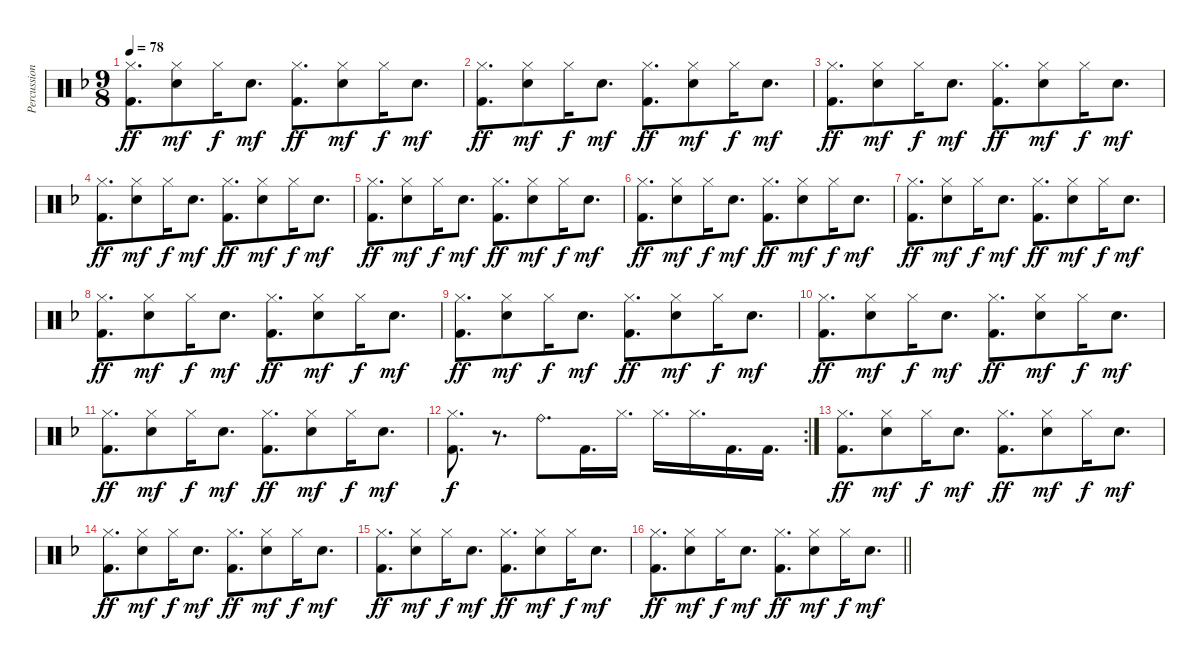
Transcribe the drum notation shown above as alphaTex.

\track ("Percussion" "Percussion") {instrument percussion}
\staff {score}
\articulation defaults
\ts (9 8)
\tempo 78
\clef neutral
\ks f
("Hi-Hat (closed)" "Kick (hit) 2").8{d dy ff} ("Hi-Hat (closed)" "Electric Snare (hit)").8{dy mf} "Hi-Hat (closed)".16{dy f beam merge} "Electric Snare (hit)".8{d dy mf beam split} ("Hi-Hat (closed)" "Kick (hit) 2").8{d dy ff beam merge} ("Hi-Hat (closed)" "Electric Snare (hit)").8{dy mf} "Hi-Hat (closed)".16{dy f} "Electric Snare (hit)".8{d dy mf} |
("Hi-Hat (closed)" "Kick (hit) 2").8{d dy ff} ("Hi-Hat (closed)" "Electric Snare (hit)").8{dy mf} "Hi-Hat (closed)".16{dy f beam merge} "Electric Snare (hit)".8{d dy mf beam split} ("Hi-Hat (closed)" "Kick (hit) 2").8{d dy ff beam merge} ("Hi-Hat (closed)" "Electric Snare (hit)").8{dy mf} "Hi-Hat (closed)".16{dy f} "Electric Snare (hit)".8{d dy mf} |
("Hi-Hat (closed)" "Kick (hit) 2").8{d dy ff} ("Hi-Hat (closed)" "Electric Snare (hit)").8{dy mf} "Hi-Hat (closed)".16{dy f beam merge} "Electric Snare (hit)".8{d dy mf beam split} ("Hi-Hat (closed)" "Kick (hit) 2").8{d dy ff beam merge} ("Hi-Hat (closed)" "Electric Snare (hit)").8{dy mf} "Hi-Hat (closed)".16{dy f} "Electric Snare (hit)".8{d dy mf} |
("Hi-Hat (closed)" "Kick (hit) 2").8{d dy ff} ("Hi-Hat (closed)" "Electric Snare (hit)").8{dy mf} "Hi-Hat (closed)".16{dy f beam merge} "Electric Snare (hit)".8{d dy mf beam split} ("Hi-Hat (closed)" "Kick (hit) 2").8{d dy ff beam merge} ("Hi-Hat (closed)" "Electric Snare (hit)").8{dy mf} "Hi-Hat (closed)".16{dy f} "Electric Snare (hit)".8{d dy mf} |
("Hi-Hat (closed)" "Kick (hit) 2").8{d dy ff} ("Hi-Hat (closed)" "Electric Snare (hit)").8{dy mf} "Hi-Hat (closed)".16{dy f beam merge} "Electric Snare (hit)".8{d dy mf beam split} ("Hi-Hat (closed)" "Kick (hit) 2").8{d dy ff beam merge} ("Hi-Hat (closed)" "Electric Snare (hit)").8{dy mf} "Hi-Hat (closed)".16{dy f} "Electric Snare (hit)".8{d dy mf} |
("Hi-Hat (closed)" "Kick (hit) 2").8{d dy ff} ("Hi-Hat (closed)" "Electric Snare (hit)").8{dy mf} "Hi-Hat (closed)".16{dy f beam merge} "Electric Snare (hit)".8{d dy mf beam split} ("Hi-Hat (closed)" "Kick (hit) 2").8{d dy ff beam merge} ("Hi-Hat (closed)" "Electric Snare (hit)").8{dy mf} "Hi-Hat (closed)".16{dy f} "Electric Snare (hit)".8{d dy mf} |
("Hi-Hat (closed)" "Kick (hit) 2").8{d dy ff} ("Hi-Hat (closed)" "Electric Snare (hit)").8{dy mf} "Hi-Hat (closed)".16{dy f beam merge} "Electric Snare (hit)".8{d dy mf beam split} ("Hi-Hat (closed)" "Kick (hit) 2").8{d dy ff beam merge} ("Hi-Hat (closed)" "Electric Snare (hit)").8{dy mf} "Hi-Hat (closed)".16{dy f} "Electric Snare (hit)".8{d dy mf} |
("Hi-Hat (closed)" "Kick (hit) 2").8{d dy ff} ("Hi-Hat (closed)" "Electric Snare (hit)").8{dy mf} "Hi-Hat (closed)".16{dy f beam merge} "Electric Snare (hit)".8{d dy mf beam split} ("Hi-Hat (closed)" "Kick (hit) 2").8{d dy ff beam merge} ("Hi-Hat (closed)" "Electric Snare (hit)").8{dy mf} "Hi-Hat (closed)".16{dy f} "Electric Snare (hit)".8{d dy mf} |
("Hi-Hat (closed)" "Kick (hit) 2").8{d dy ff} ("Hi-Hat (closed)" "Electric Snare (hit)").8{dy mf} "Hi-Hat (closed)".16{dy f beam merge} "Electric Snare (hit)".8{d dy mf beam split} ("Hi-Hat (closed)" "Kick (hit) 2").8{d dy ff beam merge} ("Hi-Hat (closed)" "Electric Snare (hit)").8{dy mf} "Hi-Hat (closed)".16{dy f} "Electric Snare (hit)".8{d dy mf} |
("Hi-Hat (closed)" "Kick (hit) 2").8{d dy ff} ("Hi-Hat (closed)" "Electric Snare (hit)").8{dy mf} "Hi-Hat (closed)".16{dy f beam merge} "Electric Snare (hit)".8{d dy mf beam split} ("Hi-Hat (closed)" "Kick (hit) 2").8{d dy ff beam merge} ("Hi-Hat (closed)" "Electric Snare (hit)").8{dy mf} "Hi-Hat (closed)".16{dy f} "Electric Snare (hit)".8{d dy mf} |
("Hi-Hat (closed)" "Kick (hit) 2").8{d dy ff} ("Hi-Hat (closed)" "Electric Snare (hit)").8{dy mf} "Hi-Hat (closed)".16{dy f beam merge} "Electric Snare (hit)".8{d dy mf beam split} ("Hi-Hat (closed)" "Kick (hit) 2").8{d dy ff beam merge} ("Hi-Hat (closed)" "Electric Snare (hit)").8{dy mf} "Hi-Hat (closed)".16{dy f} "Electric Snare (hit)".8{d dy mf} |
\rc 2
("Hi-Hat (closed)" "Kick (hit) 2").8{d dy f} r.8{d} "Ride (bell)".8{d} "Kick (hit) 2".16{d} "Hi-Hat (closed)".16{d} "Hi-Hat (closed)".16{d} "Hi-Hat (closed)".16{d} "Kick (hit) 2".16{d} "Kick (hit) 2".16{d} |
("Hi-Hat (closed)" "Kick (hit) 2").8{d dy ff} ("Hi-Hat (closed)" "Electric Snare (hit)").8{dy mf} "Hi-Hat (closed)".16{dy f beam merge} "Electric Snare (hit)".8{d dy mf beam split} ("Hi-Hat (closed)" "Kick (hit) 2").8{d dy ff beam merge} ("Hi-Hat (closed)" "Electric Snare (hit)").8{dy mf} "Hi-Hat (closed)".16{dy f} "Electric Snare (hit)".8{d dy mf} |
("Hi-Hat (closed)" "Kick (hit) 2").8{d dy ff} ("Hi-Hat (closed)" "Electric Snare (hit)").8{dy mf} "Hi-Hat (closed)".16{dy f beam merge} "Electric Snare (hit)".8{d dy mf beam split} ("Hi-Hat (closed)" "Kick (hit) 2").8{d dy ff beam merge} ("Hi-Hat (closed)" "Electric Snare (hit)").8{dy mf} "Hi-Hat (closed)".16{dy f} "Electric Snare (hit)".8{d dy mf} |
("Hi-Hat (closed)" "Kick (hit) 2").8{d dy ff} ("Hi-Hat (closed)" "Electric Snare (hit)").8{dy mf} "Hi-Hat (closed)".16{dy f beam merge} "Electric Snare (hit)".8{d dy mf beam split} ("Hi-Hat (closed)" "Kick (hit) 2").8{d dy ff beam merge} ("Hi-Hat (closed)" "Electric Snare (hit)").8{dy mf} "Hi-Hat (closed)".16{dy f} "Electric Snare (hit)".8{d dy mf} |
\barLineRight lightlight
("Hi-Hat (closed)" "Kick (hit) 2").8{d dy ff} ("Hi-Hat (closed)" "Electric Snare (hit)").8{dy mf} "Hi-Hat (closed)".16{dy f beam merge} "Electric Snare (hit)".8{d dy mf beam split} ("Hi-Hat (closed)" "Kick (hit) 2").8{d dy ff beam merge} ("Hi-Hat (closed)" "Electric Snare (hit)").8{dy mf} "Hi-Hat (closed)".16{dy f} "Electric Snare (hit)".8{d dy mf}
